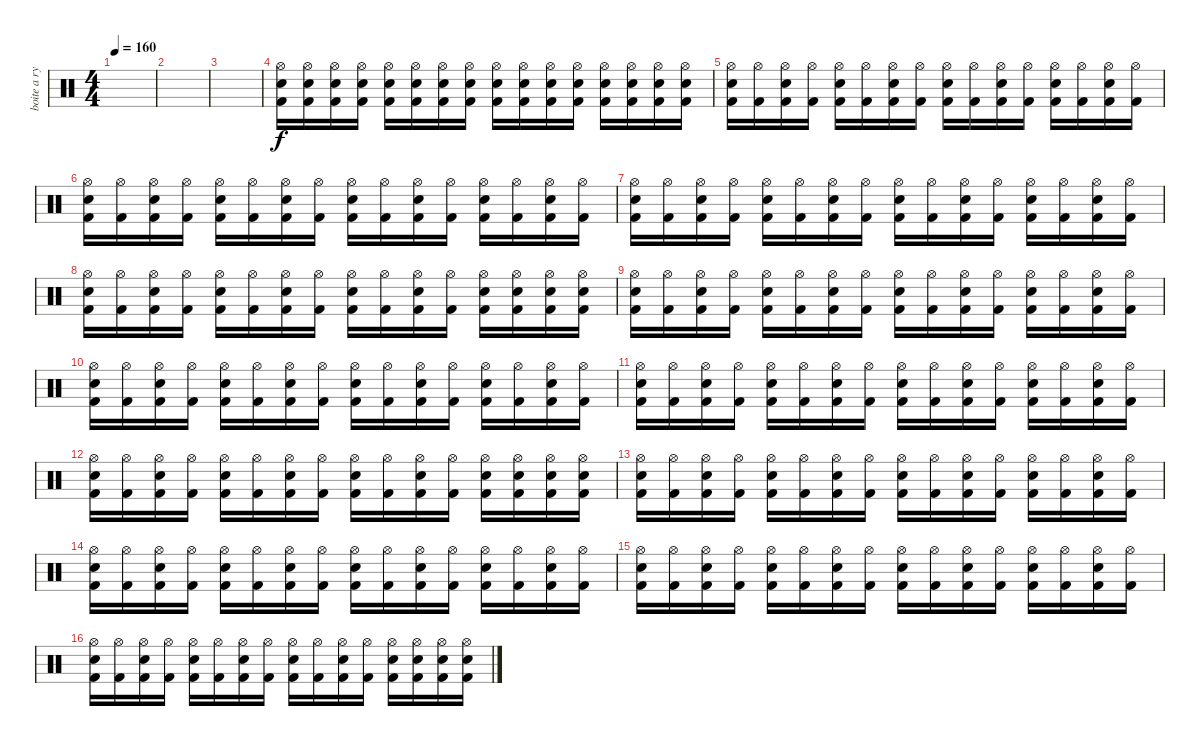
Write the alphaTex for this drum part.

\track ("boite a rythme" "boite a ry") {instrument percussion}
\staff {score}
\articulation defaults
\ts (4 4)
\tempo 160
\clef neutral
\ks c
|
|
|
("Hi-Hat (open)" "Electric Snare (hit)" "Kick (hit) 2").16 ("Hi-Hat (open)" "Electric Snare (hit)" "Kick (hit) 2").16 ("Hi-Hat (open)" "Electric Snare (hit)" "Kick (hit) 2").16 ("Hi-Hat (open)" "Electric Snare (hit)" "Kick (hit) 2").16 ("Hi-Hat (open)" "Electric Snare (hit)" "Kick (hit) 2").16 ("Hi-Hat (open)" "Electric Snare (hit)" "Kick (hit) 2").16 ("Hi-Hat (open)" "Electric Snare (hit)" "Kick (hit) 2").16 ("Hi-Hat (open)" "Electric Snare (hit)" "Kick (hit) 2").16 ("Hi-Hat (open)" "Electric Snare (hit)" "Kick (hit) 2").16 ("Hi-Hat (open)" "Electric Snare (hit)" "Kick (hit) 2").16 ("Hi-Hat (open)" "Electric Snare (hit)" "Kick (hit) 2").16 ("Hi-Hat (open)" "Electric Snare (hit)" "Kick (hit) 2").16 ("Hi-Hat (open)" "Electric Snare (hit)" "Kick (hit) 2").16 ("Hi-Hat (open)" "Electric Snare (hit)" "Kick (hit) 2").16 ("Hi-Hat (open)" "Electric Snare (hit)" "Kick (hit) 2").16 ("Hi-Hat (open)" "Electric Snare (hit)" "Kick (hit) 2").16 |
("Hi-Hat (open)" "Snare (hit) 2" "Kick (hit) 2").16 ("Hi-Hat (open)" "Kick (hit) 2").16 ("Hi-Hat (open)" "Snare (hit) 2" "Kick (hit) 2").16 ("Hi-Hat (open)" "Kick (hit) 2").16 ("Hi-Hat (open)" "Snare (hit) 2" "Kick (hit) 2").16 ("Hi-Hat (open)" "Kick (hit) 2").16 ("Hi-Hat (open)" "Snare (hit) 2" "Kick (hit) 2").16 ("Hi-Hat (open)" "Kick (hit) 2").16 ("Hi-Hat (open)" "Snare (hit) 2" "Kick (hit) 2").16 ("Hi-Hat (open)" "Kick (hit) 2").16 ("Hi-Hat (open)" "Snare (hit) 2" "Kick (hit) 2").16 ("Hi-Hat (open)" "Kick (hit) 2").16 ("Hi-Hat (open)" "Snare (hit) 2" "Kick (hit) 2").16 ("Hi-Hat (open)" "Kick (hit) 2").16 ("Hi-Hat (open)" "Snare (hit) 2" "Kick (hit) 2").16 ("Hi-Hat (open)" "Kick (hit) 2").16 |
("Hi-Hat (open)" "Snare (hit) 2" "Kick (hit) 2").16 ("Hi-Hat (open)" "Kick (hit) 2").16 ("Hi-Hat (open)" "Snare (hit) 2" "Kick (hit) 2").16 ("Hi-Hat (open)" "Kick (hit) 2").16 ("Hi-Hat (open)" "Snare (hit) 2" "Kick (hit) 2").16 ("Hi-Hat (open)" "Kick (hit) 2").16 ("Hi-Hat (open)" "Snare (hit) 2" "Kick (hit) 2").16 ("Hi-Hat (open)" "Kick (hit) 2").16 ("Hi-Hat (open)" "Snare (hit) 2" "Kick (hit) 2").16 ("Hi-Hat (open)" "Kick (hit) 2").16 ("Hi-Hat (open)" "Snare (hit) 2" "Kick (hit) 2").16 ("Hi-Hat (open)" "Kick (hit) 2").16 ("Hi-Hat (open)" "Snare (hit) 2" "Kick (hit) 2").16 ("Hi-Hat (open)" "Kick (hit) 2").16 ("Hi-Hat (open)" "Snare (hit) 2" "Kick (hit) 2").16 ("Hi-Hat (open)" "Kick (hit) 2").16 |
("Hi-Hat (open)" "Snare (hit) 2" "Kick (hit) 2").16 ("Hi-Hat (open)" "Kick (hit) 2").16 ("Hi-Hat (open)" "Snare (hit) 2" "Kick (hit) 2").16 ("Hi-Hat (open)" "Kick (hit) 2").16 ("Hi-Hat (open)" "Snare (hit) 2" "Kick (hit) 2").16 ("Hi-Hat (open)" "Kick (hit) 2").16 ("Hi-Hat (open)" "Snare (hit) 2" "Kick (hit) 2").16 ("Hi-Hat (open)" "Kick (hit) 2").16 ("Hi-Hat (open)" "Snare (hit) 2" "Kick (hit) 2").16 ("Hi-Hat (open)" "Kick (hit) 2").16 ("Hi-Hat (open)" "Snare (hit) 2" "Kick (hit) 2").16 ("Hi-Hat (open)" "Kick (hit) 2").16 ("Hi-Hat (open)" "Snare (hit) 2" "Kick (hit) 2").16 ("Hi-Hat (open)" "Kick (hit) 2").16 ("Hi-Hat (open)" "Snare (hit) 2" "Kick (hit) 2").16 ("Hi-Hat (open)" "Kick (hit) 2").16 |
("Hi-Hat (open)" "Snare (hit) 2" "Kick (hit) 2").16 ("Hi-Hat (open)" "Kick (hit) 2").16 ("Hi-Hat (open)" "Snare (hit) 2" "Kick (hit) 2").16 ("Hi-Hat (open)" "Kick (hit) 2").16 ("Hi-Hat (open)" "Snare (hit) 2" "Kick (hit) 2").16 ("Hi-Hat (open)" "Kick (hit) 2").16 ("Hi-Hat (open)" "Snare (hit) 2" "Kick (hit) 2").16 ("Hi-Hat (open)" "Kick (hit) 2").16 ("Hi-Hat (open)" "Snare (hit) 2" "Kick (hit) 2").16 ("Hi-Hat (open)" "Kick (hit) 2").16 ("Hi-Hat (open)" "Snare (hit) 2" "Kick (hit) 2").16 ("Hi-Hat (open)" "Kick (hit) 2").16 ("Hi-Hat (open)" "Snare (hit) 2" "Kick (hit) 2").16 ("Hi-Hat (open)" "Snare (hit) 2" "Kick (hit) 2").16 ("Hi-Hat (open)" "Snare (hit) 2" "Kick (hit) 2").16 ("Hi-Hat (open)" "Snare (hit) 2" "Kick (hit) 2").16 |
("Hi-Hat (open)" "Snare (hit) 2" "Kick (hit) 2").16 ("Hi-Hat (open)" "Kick (hit) 2").16 ("Hi-Hat (open)" "Snare (hit) 2" "Kick (hit) 2").16 ("Hi-Hat (open)" "Kick (hit) 2").16 ("Hi-Hat (open)" "Snare (hit) 2" "Kick (hit) 2").16 ("Hi-Hat (open)" "Kick (hit) 2").16 ("Hi-Hat (open)" "Snare (hit) 2" "Kick (hit) 2").16 ("Hi-Hat (open)" "Kick (hit) 2").16 ("Hi-Hat (open)" "Snare (hit) 2" "Kick (hit) 2").16 ("Hi-Hat (open)" "Kick (hit) 2").16 ("Hi-Hat (open)" "Snare (hit) 2" "Kick (hit) 2").16 ("Hi-Hat (open)" "Kick (hit) 2").16 ("Hi-Hat (open)" "Snare (hit) 2" "Kick (hit) 2").16 ("Hi-Hat (open)" "Kick (hit) 2").16 ("Hi-Hat (open)" "Snare (hit) 2" "Kick (hit) 2").16 ("Hi-Hat (open)" "Kick (hit) 2").16 |
("Hi-Hat (open)" "Snare (hit) 2" "Kick (hit) 2").16 ("Hi-Hat (open)" "Kick (hit) 2").16 ("Hi-Hat (open)" "Snare (hit) 2" "Kick (hit) 2").16 ("Hi-Hat (open)" "Kick (hit) 2").16 ("Hi-Hat (open)" "Snare (hit) 2" "Kick (hit) 2").16 ("Hi-Hat (open)" "Kick (hit) 2").16 ("Hi-Hat (open)" "Snare (hit) 2" "Kick (hit) 2").16 ("Hi-Hat (open)" "Kick (hit) 2").16 ("Hi-Hat (open)" "Snare (hit) 2" "Kick (hit) 2").16 ("Hi-Hat (open)" "Kick (hit) 2").16 ("Hi-Hat (open)" "Snare (hit) 2" "Kick (hit) 2").16 ("Hi-Hat (open)" "Kick (hit) 2").16 ("Hi-Hat (open)" "Snare (hit) 2" "Kick (hit) 2").16 ("Hi-Hat (open)" "Kick (hit) 2").16 ("Hi-Hat (open)" "Snare (hit) 2" "Kick (hit) 2").16 ("Hi-Hat (open)" "Kick (hit) 2").16 |
("Hi-Hat (open)" "Snare (hit) 2" "Kick (hit) 2").16 ("Hi-Hat (open)" "Kick (hit) 2").16 ("Hi-Hat (open)" "Snare (hit) 2" "Kick (hit) 2").16 ("Hi-Hat (open)" "Kick (hit) 2").16 ("Hi-Hat (open)" "Snare (hit) 2" "Kick (hit) 2").16 ("Hi-Hat (open)" "Kick (hit) 2").16 ("Hi-Hat (open)" "Snare (hit) 2" "Kick (hit) 2").16 ("Hi-Hat (open)" "Kick (hit) 2").16 ("Hi-Hat (open)" "Snare (hit) 2" "Kick (hit) 2").16 ("Hi-Hat (open)" "Kick (hit) 2").16 ("Hi-Hat (open)" "Snare (hit) 2" "Kick (hit) 2").16 ("Hi-Hat (open)" "Kick (hit) 2").16 ("Hi-Hat (open)" "Snare (hit) 2" "Kick (hit) 2").16 ("Hi-Hat (open)" "Kick (hit) 2").16 ("Hi-Hat (open)" "Snare (hit) 2" "Kick (hit) 2").16 ("Hi-Hat (open)" "Kick (hit) 2").16 |
("Hi-Hat (open)" "Snare (hit) 2" "Kick (hit) 2").16 ("Hi-Hat (open)" "Kick (hit) 2").16 ("Hi-Hat (open)" "Snare (hit) 2" "Kick (hit) 2").16 ("Hi-Hat (open)" "Kick (hit) 2").16 ("Hi-Hat (open)" "Snare (hit) 2" "Kick (hit) 2").16 ("Hi-Hat (open)" "Kick (hit) 2").16 ("Hi-Hat (open)" "Snare (hit) 2" "Kick (hit) 2").16 ("Hi-Hat (open)" "Kick (hit) 2").16 ("Hi-Hat (open)" "Snare (hit) 2" "Kick (hit) 2").16 ("Hi-Hat (open)" "Kick (hit) 2").16 ("Hi-Hat (open)" "Snare (hit) 2" "Kick (hit) 2").16 ("Hi-Hat (open)" "Kick (hit) 2").16 ("Hi-Hat (open)" "Snare (hit) 2" "Kick (hit) 2").16 ("Hi-Hat (open)" "Snare (hit) 2" "Kick (hit) 2").16 ("Hi-Hat (open)" "Snare (hit) 2" "Kick (hit) 2").16 ("Hi-Hat (open)" "Snare (hit) 2" "Kick (hit) 2").16 |
("Hi-Hat (open)" "Snare (hit) 2" "Kick (hit) 2").16 ("Hi-Hat (open)" "Kick (hit) 2").16 ("Hi-Hat (open)" "Snare (hit) 2" "Kick (hit) 2").16 ("Hi-Hat (open)" "Kick (hit) 2").16 ("Hi-Hat (open)" "Snare (hit) 2" "Kick (hit) 2").16 ("Hi-Hat (open)" "Kick (hit) 2").16 ("Hi-Hat (open)" "Snare (hit) 2" "Kick (hit) 2").16 ("Hi-Hat (open)" "Kick (hit) 2").16 ("Hi-Hat (open)" "Snare (hit) 2" "Kick (hit) 2").16 ("Hi-Hat (open)" "Kick (hit) 2").16 ("Hi-Hat (open)" "Snare (hit) 2" "Kick (hit) 2").16 ("Hi-Hat (open)" "Kick (hit) 2").16 ("Hi-Hat (open)" "Snare (hit) 2" "Kick (hit) 2").16 ("Hi-Hat (open)" "Kick (hit) 2").16 ("Hi-Hat (open)" "Snare (hit) 2" "Kick (hit) 2").16 ("Hi-Hat (open)" "Kick (hit) 2").16 |
("Hi-Hat (open)" "Snare (hit) 2" "Kick (hit) 2").16 ("Hi-Hat (open)" "Kick (hit) 2").16 ("Hi-Hat (open)" "Snare (hit) 2" "Kick (hit) 2").16 ("Hi-Hat (open)" "Kick (hit) 2").16 ("Hi-Hat (open)" "Snare (hit) 2" "Kick (hit) 2").16 ("Hi-Hat (open)" "Kick (hit) 2").16 ("Hi-Hat (open)" "Snare (hit) 2" "Kick (hit) 2").16 ("Hi-Hat (open)" "Kick (hit) 2").16 ("Hi-Hat (open)" "Snare (hit) 2" "Kick (hit) 2").16 ("Hi-Hat (open)" "Kick (hit) 2").16 ("Hi-Hat (open)" "Snare (hit) 2" "Kick (hit) 2").16 ("Hi-Hat (open)" "Kick (hit) 2").16 ("Hi-Hat (open)" "Snare (hit) 2" "Kick (hit) 2").16 ("Hi-Hat (open)" "Kick (hit) 2").16 ("Hi-Hat (open)" "Snare (hit) 2" "Kick (hit) 2").16 ("Hi-Hat (open)" "Kick (hit) 2").16 |
("Hi-Hat (open)" "Snare (hit) 2" "Kick (hit) 2").16 ("Hi-Hat (open)" "Kick (hit) 2").16 ("Hi-Hat (open)" "Snare (hit) 2" "Kick (hit) 2").16 ("Hi-Hat (open)" "Kick (hit) 2").16 ("Hi-Hat (open)" "Snare (hit) 2" "Kick (hit) 2").16 ("Hi-Hat (open)" "Kick (hit) 2").16 ("Hi-Hat (open)" "Snare (hit) 2" "Kick (hit) 2").16 ("Hi-Hat (open)" "Kick (hit) 2").16 ("Hi-Hat (open)" "Snare (hit) 2" "Kick (hit) 2").16 ("Hi-Hat (open)" "Kick (hit) 2").16 ("Hi-Hat (open)" "Snare (hit) 2" "Kick (hit) 2").16 ("Hi-Hat (open)" "Kick (hit) 2").16 ("Hi-Hat (open)" "Snare (hit) 2" "Kick (hit) 2").16 ("Hi-Hat (open)" "Kick (hit) 2").16 ("Hi-Hat (open)" "Snare (hit) 2" "Kick (hit) 2").16 ("Hi-Hat (open)" "Kick (hit) 2").16 |
("Hi-Hat (open)" "Snare (hit) 2" "Kick (hit) 2").16 ("Hi-Hat (open)" "Kick (hit) 2").16 ("Hi-Hat (open)" "Snare (hit) 2" "Kick (hit) 2").16 ("Hi-Hat (open)" "Kick (hit) 2").16 ("Hi-Hat (open)" "Snare (hit) 2" "Kick (hit) 2").16 ("Hi-Hat (open)" "Kick (hit) 2").16 ("Hi-Hat (open)" "Snare (hit) 2" "Kick (hit) 2").16 ("Hi-Hat (open)" "Kick (hit) 2").16 ("Hi-Hat (open)" "Snare (hit) 2" "Kick (hit) 2").16 ("Hi-Hat (open)" "Kick (hit) 2").16 ("Hi-Hat (open)" "Snare (hit) 2" "Kick (hit) 2").16 ("Hi-Hat (open)" "Kick (hit) 2").16 ("Hi-Hat (open)" "Snare (hit) 2" "Kick (hit) 2").16 ("Hi-Hat (open)" "Snare (hit) 2" "Kick (hit) 2").16 ("Hi-Hat (open)" "Snare (hit) 2" "Kick (hit) 2").16 ("Hi-Hat (open)" "Snare (hit) 2" "Kick (hit) 2").16
